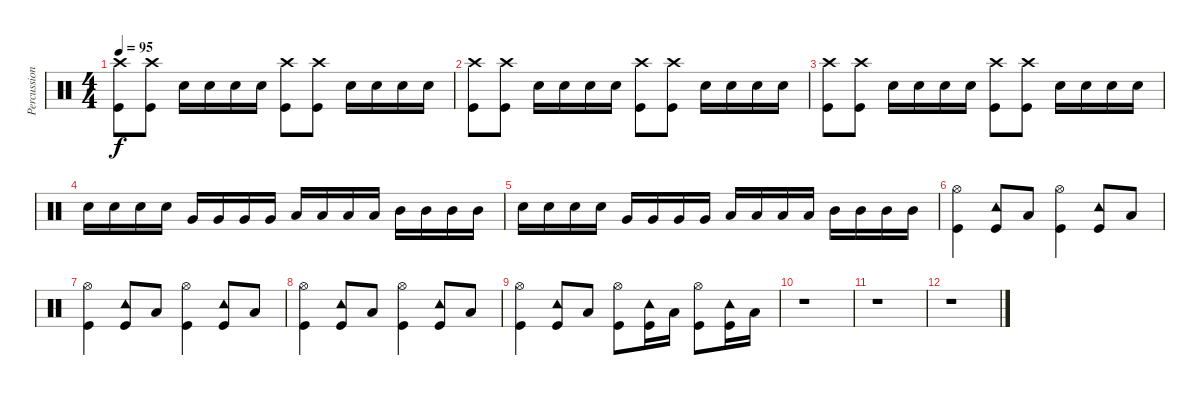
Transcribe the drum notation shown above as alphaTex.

\track ("Percussion" "Percussion") {instrument percussion}
\staff {score}
\articulation defaults
\ts (4 4)
\tempo 95
\clef neutral
\ks c
("Crash high (hit)" "Kick (hit)").8{dy f} ("Crash high (hit)" "Kick (hit)").8 "Electric Snare (hit)".16 "Electric Snare (hit)".16 "Electric Snare (hit)".16 "Electric Snare (hit)".16 ("Crash high (hit)" "Kick (hit)").8 ("Crash high (hit)" "Kick (hit)").8 "Electric Snare (hit)".16 "Electric Snare (hit)".16 "Electric Snare (hit)".16 "Electric Snare (hit)".16 |
("Crash high (hit)" "Kick (hit)").8 ("Crash high (hit)" "Kick (hit)").8 "Electric Snare (hit)".16 "Electric Snare (hit)".16 "Electric Snare (hit)".16 "Electric Snare (hit)".16 ("Crash high (hit)" "Kick (hit)").8 ("Crash high (hit)" "Kick (hit)").8 "Electric Snare (hit)".16 "Electric Snare (hit)".16 "Electric Snare (hit)".16 "Electric Snare (hit)".16 |
("Crash high (hit)" "Kick (hit)").8 ("Crash high (hit)" "Kick (hit)").8 "Electric Snare (hit)".16 "Electric Snare (hit)".16 "Electric Snare (hit)".16 "Electric Snare (hit)".16 ("Crash high (hit)" "Kick (hit)").8 ("Crash high (hit)" "Kick (hit)").8 "Electric Snare (hit)".16 "Electric Snare (hit)".16 "Electric Snare (hit)".16 "Electric Snare (hit)".16 |
"Electric Snare (hit)".16 "Electric Snare (hit)".16 "Electric Snare (hit)".16 "Electric Snare (hit)".16 "Very Low Tom (hit)".16 "Very Low Tom (hit)".16 "Very Low Tom (hit)".16 "Very Low Tom (hit)".16 "Low Tom (hit)".16 "Low Tom (hit)".16 "Low Tom (hit)".16 "Low Tom (hit)".16 "Mid Tom (hit)".16 "Mid Tom (hit)".16 "Mid Tom (hit)".16 "Mid Tom (hit)".16 |
"Electric Snare (hit)".16 "Electric Snare (hit)".16 "Electric Snare (hit)".16 "Electric Snare (hit)".16 "Very Low Tom (hit)".16 "Very Low Tom (hit)".16 "Very Low Tom (hit)".16 "Very Low Tom (hit)".16 "Low Tom (hit)".16 "Low Tom (hit)".16 "Low Tom (hit)".16 "Low Tom (hit)".16 "Mid Tom (hit)".16 "Mid Tom (hit)".16 "Mid Tom (hit)".16 "Mid Tom (hit)".16 |
("Hi-Hat (open)" "Kick (hit)").4 ("Tambourine (hit)" "Kick (hit)").8 "Low Tom (hit)".8 ("Hi-Hat (open)" "Kick (hit)").4 ("Tambourine (hit)" "Kick (hit)").8 "Low Tom (hit)".8 |
("Hi-Hat (open)" "Kick (hit)").4 ("Tambourine (hit)" "Kick (hit)").8 "Low Tom (hit)".8 ("Hi-Hat (open)" "Kick (hit)").4 ("Tambourine (hit)" "Kick (hit)").8 "Low Tom (hit)".8 |
("Hi-Hat (open)" "Kick (hit)").4 ("Tambourine (hit)" "Kick (hit)").8 "Low Tom (hit)".8 ("Hi-Hat (open)" "Kick (hit)").4 ("Tambourine (hit)" "Kick (hit)").8 "Low Tom (hit)".8 |
("Hi-Hat (open)" "Kick (hit)").4 ("Tambourine (hit)" "Kick (hit)").8 "Low Tom (hit)".8 ("Hi-Hat (open)" "Kick (hit)").8 ("Tambourine (hit)" "Kick (hit)").16 "Low Tom (hit)".16 ("Hi-Hat (open)" "Kick (hit)").8 ("Tambourine (hit)" "Kick (hit)").16 "Low Tom (hit)".16 |
r.1 |
r.1 |
r.1
